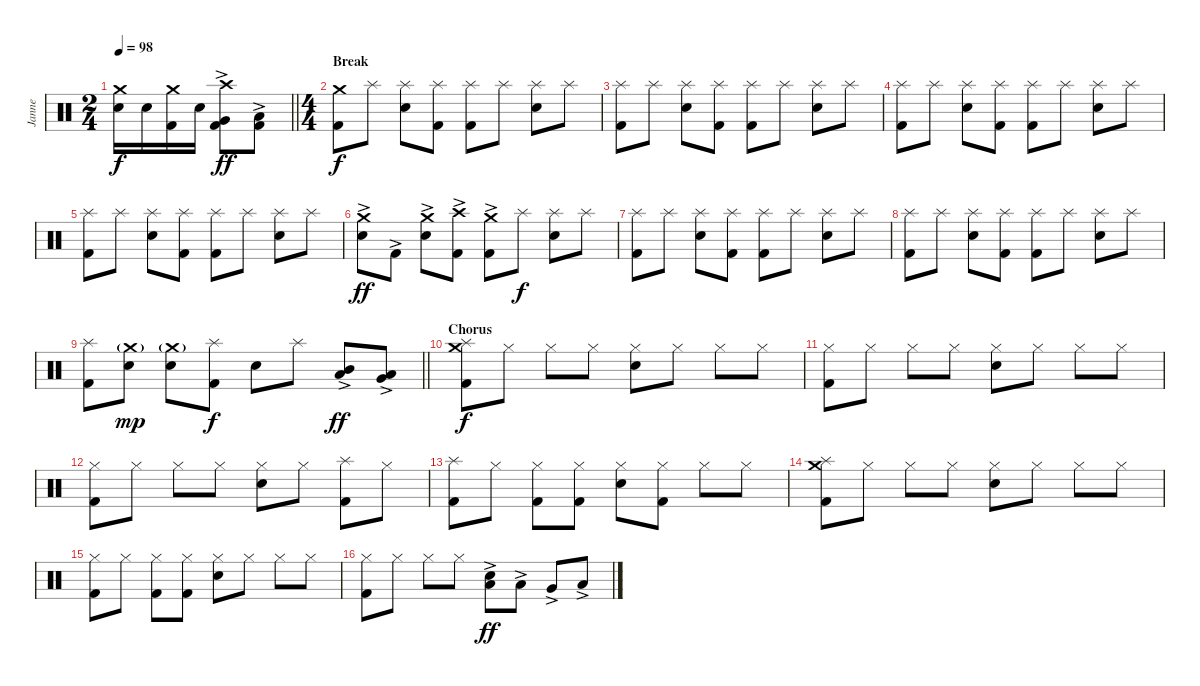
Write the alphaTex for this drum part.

\track ("Janne" "Janne") {instrument percussion}
\staff {score}
\articulation defaults
\ts (2 4)
\tempo 98
\clef neutral
\barLineRight lightlight
\ks c
("Snare (hit) 2" "Crash medium (hit)").16{dy f} "Snare (hit) 2".16 ("Kick (hit) 2" "Crash medium (hit)").16 "Snare (hit) 2".16 ("Kick (hit) 2" "Very Low Tom (hit)"{ac} "Crash high (hit)").8{dy ff} ("Kick (hit) 2" "Low Floor Tom (hit)"{ac}).8 |
\ts (4 4)
\section ("" "Break")
("Kick (hit) 2" "Crash medium (hit)").8{dy f} "Splash (hit)".8 ("Snare (hit) 2" "Splash (hit)").8 ("Kick (hit) 2" "Splash (hit)").8 ("Kick (hit) 2" "Splash (hit)").8 "Splash (hit)".8 ("Snare (hit) 2" "Splash (hit)").8 "Splash (hit)".8 |
("Kick (hit) 2" "Splash (hit)").8 "Splash (hit)".8 ("Snare (hit) 2" "Splash (hit)").8 ("Kick (hit) 2" "Splash (hit)").8 ("Kick (hit) 2" "Splash (hit)").8 "Splash (hit)".8 ("Snare (hit) 2" "Splash (hit)").8 "Splash (hit)".8 |
("Kick (hit) 2" "Splash (hit)").8 "Splash (hit)".8 ("Snare (hit) 2" "Splash (hit)").8 ("Kick (hit) 2" "Splash (hit)").8 ("Kick (hit) 2" "Splash (hit)").8 "Splash (hit)".8 ("Snare (hit) 2" "Splash (hit)").8 "Splash (hit)".8 |
("Kick (hit) 2" "Splash (hit)").8 "Splash (hit)".8 ("Snare (hit) 2" "Splash (hit)").8 ("Kick (hit) 2" "Splash (hit)").8 ("Kick (hit) 2" "Splash (hit)").8 "Splash (hit)".8 ("Snare (hit) 2" "Splash (hit)").8 "Splash (hit)".8 |
("Snare (hit) 2"{ac} "Crash medium (hit)").8{dy ff} "Kick (hit) 2"{ac}.8 ("Snare (hit) 2"{ac} "Crash medium (hit)").8 ("Kick (hit) 2"{ac} "Crash high (hit)").8 ("Kick (hit) 2"{ac} "Crash medium (hit)").8 "Splash (hit)".8{dy f} ("Snare (hit) 2" "Splash (hit)").8 "Splash (hit)".8 |
("Kick (hit) 2" "Splash (hit)").8 "Splash (hit)".8 ("Snare (hit) 2" "Splash (hit)").8 ("Kick (hit) 2" "Splash (hit)").8 ("Kick (hit) 2" "Splash (hit)").8 "Splash (hit)".8 ("Snare (hit) 2" "Splash (hit)").8 "Splash (hit)".8 |
("Kick (hit) 2" "Splash (hit)").8 "Splash (hit)".8 ("Snare (hit) 2" "Splash (hit)").8 ("Kick (hit) 2" "Splash (hit)").8 ("Kick (hit) 2" "Splash (hit)").8 "Splash (hit)".8 ("Snare (hit) 2" "Splash (hit)").8 "Splash (hit)".8 |
\barLineRight lightlight
("Kick (hit) 2" "Splash (hit)").8 ("Snare (hit) 2" "Crash medium (hit)"{g}).8{dy mp} ("Snare (hit) 2" "Crash medium (hit)"{g}).8 ("Kick (hit) 2" "Splash (hit)").8{dy f} "Snare (hit) 2".8 "Splash (hit)".8 ("Mid Tom (hit)"{ac} "Low Tom (hit)"{ac}).8{dy ff} ("Low Tom (hit)"{ac} "Very Low Tom (hit)"{ac}).8 |
\section ("" "Chorus")
("Kick (hit) 2" "Crash medium (hit)" "Splash (hit)").8{dy f} "Hi-Hat (closed)".8 "Hi-Hat (closed)".8 "Hi-Hat (closed)".8 ("Snare (hit) 2" "Hi-Hat (closed)").8 "Hi-Hat (closed)".8 "Hi-Hat (closed)".8 "Hi-Hat (closed)".8 |
("Kick (hit) 2" "Hi-Hat (closed)").8 "Hi-Hat (closed)".8 "Hi-Hat (closed)".8 "Hi-Hat (closed)".8 ("Snare (hit) 2" "Hi-Hat (closed)").8 "Hi-Hat (closed)".8 "Hi-Hat (closed)".8 "Hi-Hat (closed)".8 |
("Kick (hit) 2" "Hi-Hat (closed)").8 "Hi-Hat (closed)".8 "Hi-Hat (closed)".8 "Hi-Hat (closed)".8 ("Snare (hit) 2" "Hi-Hat (closed)").8 "Hi-Hat (closed)".8 ("Kick (hit) 2" "Splash (hit)").8 "Hi-Hat (closed)".8 |
("Kick (hit) 2" "Splash (hit)").8 "Hi-Hat (closed)".8 ("Kick (hit) 2" "Hi-Hat (closed)").8 ("Kick (hit) 2" "Hi-Hat (closed)").8 ("Snare (hit) 2" "Hi-Hat (closed)").8 ("Kick (hit) 2" "Hi-Hat (closed)").8 "Hi-Hat (closed)".8 "Hi-Hat (closed)".8 |
("Kick (hit) 2" "Crash medium (hit)" "Splash (hit)").8 "Hi-Hat (closed)".8 "Hi-Hat (closed)".8 "Hi-Hat (closed)".8 ("Snare (hit) 2" "Hi-Hat (closed)").8 "Hi-Hat (closed)".8 "Hi-Hat (closed)".8 "Hi-Hat (closed)".8 |
("Kick (hit) 2" "Hi-Hat (closed)").8 "Hi-Hat (closed)".8 ("Kick (hit) 2" "Hi-Hat (closed)").8 ("Kick (hit) 2" "Hi-Hat (closed)").8 ("Snare (hit) 2" "Hi-Hat (closed)").8 "Hi-Hat (closed)".8 "Hi-Hat (closed)".8 "Hi-Hat (closed)".8 |
("Kick (hit) 2" "Hi-Hat (closed)").8 "Hi-Hat (closed)".8 "Hi-Hat (closed)".8 "Hi-Hat (closed)".8 ("Snare (hit) 2"{ac} "Low Tom (hit)"{ac}).8{dy ff} "Low Tom (hit)"{ac}.8 "Very Low Tom (hit)"{ac}.8 "Low Floor Tom (hit)"{ac}.8
